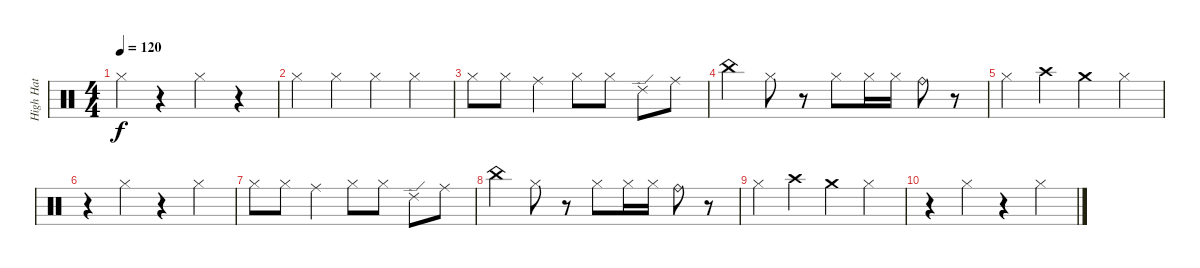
\track ("High Hat" "High Hat") {instrument percussion}
\staff {score}
\articulation defaults
\ts (4 4)
\tempo 120
\clef neutral
\ks c "Hi-Hat (closed)".4{dy f}
r.4 "Hi-Hat (closed)".4 r.4 |
"Hi-Hat (closed)".4 "Hi-Hat (closed)".4 "Hi-Hat (closed)".4 "Hi-Hat (closed)".4 |
"Hi-Hat (closed)".8 "Hi-Hat (closed)".8 "Ride (middle)".4 "Hi-Hat (closed)".8 "Hi-Hat (closed)".8 "Ride (edge) 2".8 "Ride (middle)".8 |
"China (hit)".4 "Hi-Hat (closed)".8 r.8 "Hi-Hat (closed)".8 "Hi-Hat (closed)".16 "Hi-Hat (closed)".16 "Ride (bell)".8 r.8 |
"Hi-Hat (closed)".4 "Crash high (hit)".4 "Crash medium (hit)".4 "Hi-Hat (closed)".4 |
r.4 "Hi-Hat (closed)".4 r.4 "Hi-Hat (closed)".4 |
"Hi-Hat (closed)".8 "Hi-Hat (closed)".8 "Ride (middle)".4 "Hi-Hat (closed)".8 "Hi-Hat (closed)".8 "Ride (edge) 2".8 "Ride (middle)".8 |
"China (hit)".4 "Hi-Hat (closed)".8 r.8 "Hi-Hat (closed)".8 "Hi-Hat (closed)".16 "Hi-Hat (closed)".16 "Ride (bell)".8 r.8 |
"Hi-Hat (closed)".4 "Crash high (hit)".4 "Crash medium (hit)".4 "Hi-Hat (closed)".4 |
r.4 "Hi-Hat (closed)".4 r.4 "Hi-Hat (closed)".4
